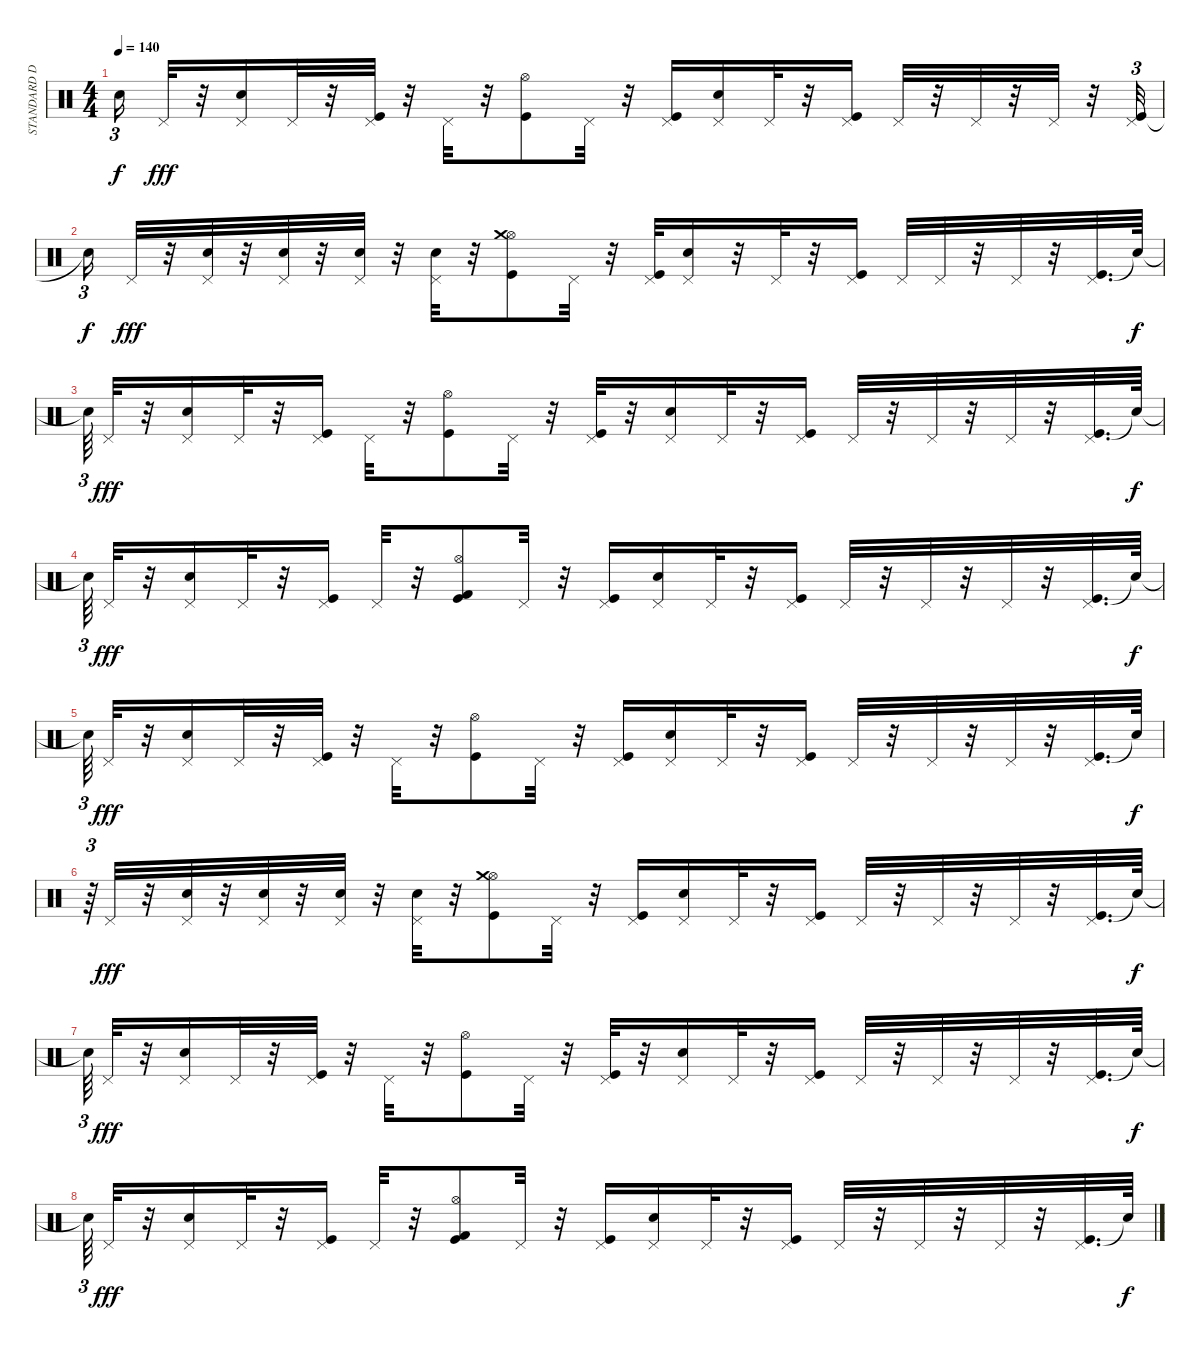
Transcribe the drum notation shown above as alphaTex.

\track ("STANDARD DRUMS" "STANDARD D") {instrument percussion}
\staff {score}
\articulation defaults
\ts (4 4)
\tempo 140
\clef neutral
\ks c "Snare (hit)"{t}.16{tu (3 2) dy f} "Pedal Hi-Hat (hit)".32{dy fff}
r.32 ("Snare (hit) 2" "Pedal Hi-Hat (hit)").16 "Pedal Hi-Hat (hit)".32 r.32 ("Kick (hit)" "Pedal Hi-Hat (hit)").32 r.32 "Pedal Hi-Hat (hit)".32 r.32 ("Kick (hit)" "Hi-Hat (open)").8 "Pedal Hi-Hat (hit)".32 r.32 ("Kick (hit)" "Pedal Hi-Hat (hit)").16 ("Snare (hit) 2" "Pedal Hi-Hat (hit)").16 "Pedal Hi-Hat (hit)".32 r.32 ("Kick (hit)" "Pedal Hi-Hat (hit)").16 "Pedal Hi-Hat (hit)".32 r.32 "Pedal Hi-Hat (hit)".32 r.32 "Pedal Hi-Hat (hit)".32 r.32 ("Kick (hit)" "Pedal Hi-Hat (hit)").32{tu (3 2)} |
"Snare (hit)"{t}.16{tu (3 2) dy f} "Pedal Hi-Hat (hit)".32{dy fff} r.32 ("Snare (hit) 2" "Pedal Hi-Hat (hit)").32 r.32 ("Snare (hit) 2" "Pedal Hi-Hat (hit)").32 r.32 ("Snare (hit) 2" "Pedal Hi-Hat (hit)").32 r.32 ("Snare (hit) 2" "Pedal Hi-Hat (hit)").32 r.32 ("Kick (hit)" "Hi-Hat (open)" "Crash medium (hit)").8 "Pedal Hi-Hat (hit)".32 r.32 ("Kick (hit)" "Pedal Hi-Hat (hit)").32 ("Snare (hit) 2" "Pedal Hi-Hat (hit)").16 r.32 "Pedal Hi-Hat (hit)".32 r.32 ("Kick (hit)" "Pedal Hi-Hat (hit)").16 "Pedal Hi-Hat (hit)".32 "Pedal Hi-Hat (hit)".32 r.32 "Pedal Hi-Hat (hit)".32 r.32 ("Kick (hit)" "Pedal Hi-Hat (hit)").32{d} "Snare (hit)"{t}.64{dy f} |
"Snare (hit)"{t}.64{tu (3 2)} "Pedal Hi-Hat (hit)".32{dy fff} r.32 ("Snare (hit) 2" "Pedal Hi-Hat (hit)").16 "Pedal Hi-Hat (hit)".32 r.32 ("Kick (hit)" "Pedal Hi-Hat (hit)").16 "Pedal Hi-Hat (hit)".32 r.32 ("Kick (hit)" "Hi-Hat (open)").8 "Pedal Hi-Hat (hit)".32 r.32 ("Kick (hit)" "Pedal Hi-Hat (hit)").32 r.32 ("Snare (hit) 2" "Pedal Hi-Hat (hit)").16 "Pedal Hi-Hat (hit)".32 r.32 ("Kick (hit)" "Pedal Hi-Hat (hit)").16 "Pedal Hi-Hat (hit)".32 r.32 "Pedal Hi-Hat (hit)".32 r.32 "Pedal Hi-Hat (hit)".32 r.32 ("Kick (hit)" "Pedal Hi-Hat (hit)").32{d} "Snare (hit)"{t}.64{dy f} |
"Snare (hit)"{t}.64{tu (3 2)} "Pedal Hi-Hat (hit)".32{dy fff} r.32 ("Snare (hit) 2" "Pedal Hi-Hat (hit)").16 "Pedal Hi-Hat (hit)".32 r.32 ("Kick (hit)" "Pedal Hi-Hat (hit)").16 "Pedal Hi-Hat (hit)".32 r.32 ("Kick (hit)" "Kick (hit) 2" "Hi-Hat (open)").8 "Pedal Hi-Hat (hit)".32 r.32 ("Kick (hit)" "Pedal Hi-Hat (hit)").16 ("Snare (hit) 2" "Pedal Hi-Hat (hit)").16 "Pedal Hi-Hat (hit)".32 r.32 ("Kick (hit)" "Pedal Hi-Hat (hit)").16 "Pedal Hi-Hat (hit)".32 r.32 "Pedal Hi-Hat (hit)".32 r.32 "Pedal Hi-Hat (hit)".32 r.32 ("Kick (hit)" "Pedal Hi-Hat (hit)").32{d} "Snare (hit)"{t}.64{dy f} |
"Snare (hit)"{t}.64{tu (3 2)} "Pedal Hi-Hat (hit)".32{dy fff} r.32 ("Snare (hit) 2" "Pedal Hi-Hat (hit)").16 "Pedal Hi-Hat (hit)".32 r.32 ("Kick (hit)" "Pedal Hi-Hat (hit)").32 r.32 "Pedal Hi-Hat (hit)".32 r.32 ("Kick (hit)" "Hi-Hat (open)").8 "Pedal Hi-Hat (hit)".32 r.32 ("Kick (hit)" "Pedal Hi-Hat (hit)").16 ("Snare (hit) 2" "Pedal Hi-Hat (hit)").16 "Pedal Hi-Hat (hit)".32 r.32 ("Kick (hit)" "Pedal Hi-Hat (hit)").16 "Pedal Hi-Hat (hit)".32 r.32 "Pedal Hi-Hat (hit)".32 r.32 "Pedal Hi-Hat (hit)".32 r.32 ("Kick (hit)" "Pedal Hi-Hat (hit)").32{d} "Snare (hit)"{t}.64{dy f} |
r.64{tu (3 2)} "Pedal Hi-Hat (hit)".32{dy fff} r.32 ("Snare (hit) 2" "Pedal Hi-Hat (hit)").32 r.32 ("Snare (hit) 2" "Pedal Hi-Hat (hit)").32 r.32 ("Snare (hit) 2" "Pedal Hi-Hat (hit)").32 r.32 ("Snare (hit) 2" "Pedal Hi-Hat (hit)").32 r.32 ("Kick (hit)" "Hi-Hat (open)" "Crash medium (hit)").8 "Pedal Hi-Hat (hit)".32 r.32 ("Kick (hit)" "Pedal Hi-Hat (hit)").16 ("Snare (hit) 2" "Pedal Hi-Hat (hit)").16 "Pedal Hi-Hat (hit)".32 r.32 ("Kick (hit)" "Pedal Hi-Hat (hit)").16 "Pedal Hi-Hat (hit)".32 r.32 "Pedal Hi-Hat (hit)".32 r.32 "Pedal Hi-Hat (hit)".32 r.32 ("Kick (hit)" "Pedal Hi-Hat (hit)").32{d} "Snare (hit)"{t}.64{dy f} |
"Snare (hit)"{t}.64{tu (3 2)} "Pedal Hi-Hat (hit)".32{dy fff} r.32 ("Snare (hit) 2" "Pedal Hi-Hat (hit)").16 "Pedal Hi-Hat (hit)".32 r.32 ("Kick (hit)" "Pedal Hi-Hat (hit)").32 r.32 "Pedal Hi-Hat (hit)".32 r.32 ("Kick (hit)" "Hi-Hat (open)").8 "Pedal Hi-Hat (hit)".32 r.32 ("Kick (hit)" "Pedal Hi-Hat (hit)").32 r.32 ("Snare (hit) 2" "Pedal Hi-Hat (hit)").16 "Pedal Hi-Hat (hit)".32 r.32 ("Kick (hit)" "Pedal Hi-Hat (hit)").16 "Pedal Hi-Hat (hit)".32 r.32 "Pedal Hi-Hat (hit)".32 r.32 "Pedal Hi-Hat (hit)".32 r.32 ("Kick (hit)" "Pedal Hi-Hat (hit)").32{d} "Snare (hit)"{t}.64{dy f} |
"Snare (hit)"{t}.64{tu (3 2)} "Pedal Hi-Hat (hit)".32{dy fff} r.32 ("Snare (hit) 2" "Pedal Hi-Hat (hit)").16 "Pedal Hi-Hat (hit)".32 r.32 ("Kick (hit)" "Pedal Hi-Hat (hit)").16 "Pedal Hi-Hat (hit)".32 r.32 ("Kick (hit)" "Kick (hit) 2" "Hi-Hat (open)").8 "Pedal Hi-Hat (hit)".32 r.32 ("Kick (hit)" "Pedal Hi-Hat (hit)").16 ("Snare (hit) 2" "Pedal Hi-Hat (hit)").16 "Pedal Hi-Hat (hit)".32 r.32 ("Kick (hit)" "Pedal Hi-Hat (hit)").16 "Pedal Hi-Hat (hit)".32 r.32 "Pedal Hi-Hat (hit)".32 r.32 "Pedal Hi-Hat (hit)".32 r.32 ("Kick (hit)" "Pedal Hi-Hat (hit)").32{d} "Snare (hit)"{t}.64{dy f}
